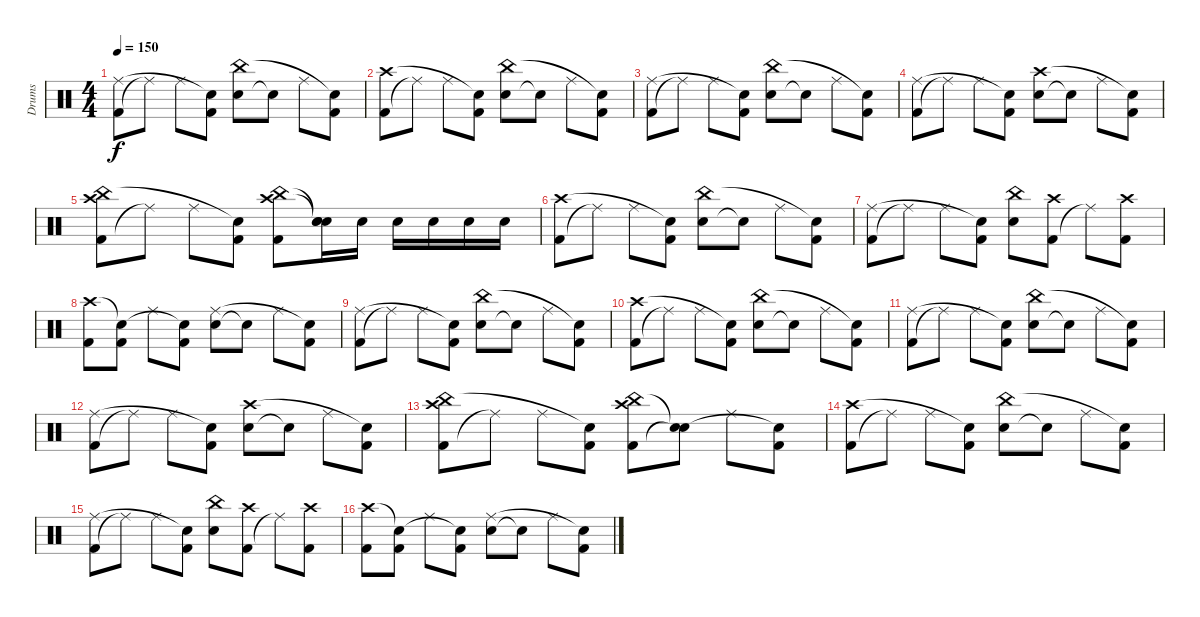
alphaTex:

\track ("Drums" "Drums") {instrument percussion}
\staff {score}
\articulation defaults
\ts (4 4)
\tempo 150
\clef neutral
\ks c
("Kick (hit) 2" "Ride (middle)").8{dy f} "Ride (middle)"{t}.8 "Ride (middle)".8 ("Kick (hit) 2" "Snare (hit)"{t}).8 ("Electric Snare (hit)" "China (hit)").8 "Snare (hit)"{t}.8 "Ride (middle)".8 ("Kick (hit) 2" "Snare (hit)"{t}).8 |
("Kick (hit) 2" "Crash high (hit)").8 "Ride (middle)"{t}.8 "Ride (middle)".8 ("Kick (hit) 2" "Snare (hit)"{t}).8 ("Electric Snare (hit)" "China (hit)").8 "Snare (hit)"{t}.8 "Ride (middle)".8 ("Kick (hit) 2" "Snare (hit)"{t}).8 |
("Kick (hit) 2" "Ride (middle)").8 "Ride (middle)"{t}.8 "Ride (middle)".8 ("Kick (hit) 2" "Snare (hit)"{t}).8 ("Electric Snare (hit)" "China (hit)").8 "Snare (hit)"{t}.8 "Ride (middle)".8 ("Kick (hit) 2" "Snare (hit)"{t}).8 |
("Kick (hit) 2" "Ride (middle)").8 "Ride (middle)"{t}.8 "Ride (middle)".8 ("Kick (hit) 2" "Snare (hit)"{t}).8 ("Electric Snare (hit)" "Crash high (hit)").8 "Snare (hit)"{t}.8 "Ride (middle)".8 ("Kick (hit) 2" "Snare (hit)"{t}).8 |
("Kick (hit) 2" "China (hit)" "Crash high (hit)").8 "Ride (middle)"{t}.8 "Ride (middle)".8 ("Kick (hit) 2" "Snare (hit)"{t}).8 ("Kick (hit) 2" "China (hit)" "Crash high (hit)").8 ("Electric Snare (hit)" "Snare (hit)"{t} "Snare (hit)"{t}).16 "Electric Snare (hit)".16 "Electric Snare (hit)".16 "Electric Snare (hit)".16 "Electric Snare (hit)".16 "Electric Snare (hit)".16 |
("Kick (hit) 2" "Crash high (hit)").8 "Ride (middle)"{t}.8 "Ride (middle)".8 ("Kick (hit) 2" "Snare (hit)"{t}).8 ("Electric Snare (hit)" "China (hit)").8 "Snare (hit)"{t}.8 "Ride (middle)".8 ("Kick (hit) 2" "Snare (hit)"{t}).8 |
("Kick (hit) 2" "Ride (middle)").8 "Ride (middle)"{t}.8 "Ride (middle)".8 ("Kick (hit) 2" "Snare (hit)"{t}).8 ("Electric Snare (hit)" "China (hit)").8 ("Kick (hit) 2" "Crash high (hit)").8 "Ride (middle)"{t}.8 ("Kick (hit) 2" "Crash high (hit)").8 |
("Kick (hit) 2" "Crash high (hit)").8 ("Kick (hit) 2" "Snare (hit)"{t}).8 "Ride (middle)".8 ("Kick (hit) 2" "Snare (hit)"{t}).8 ("Electric Snare (hit)" "Ride (middle)").8 "Snare (hit)"{t}.8 "Ride (middle)".8 ("Kick (hit) 2" "Snare (hit)"{t}).8 |
("Kick (hit) 2" "Ride (middle)").8 "Ride (middle)"{t}.8 "Ride (middle)".8 ("Kick (hit) 2" "Snare (hit)"{t}).8 ("Electric Snare (hit)" "China (hit)").8 "Snare (hit)"{t}.8 "Ride (middle)".8 ("Kick (hit) 2" "Snare (hit)"{t}).8 |
("Kick (hit) 2" "Crash high (hit)").8 "Ride (middle)"{t}.8 "Ride (middle)".8 ("Kick (hit) 2" "Snare (hit)"{t}).8 ("Electric Snare (hit)" "China (hit)").8 "Snare (hit)"{t}.8 "Ride (middle)".8 ("Kick (hit) 2" "Snare (hit)"{t}).8 |
("Kick (hit) 2" "Ride (middle)").8 "Ride (middle)"{t}.8 "Ride (middle)".8 ("Kick (hit) 2" "Snare (hit)"{t}).8 ("Electric Snare (hit)" "China (hit)").8 "Snare (hit)"{t}.8 "Ride (middle)".8 ("Kick (hit) 2" "Snare (hit)"{t}).8 |
("Kick (hit) 2" "Ride (middle)").8 "Ride (middle)"{t}.8 "Ride (middle)".8 ("Kick (hit) 2" "Snare (hit)"{t}).8 ("Electric Snare (hit)" "Crash high (hit)").8 "Snare (hit)"{t}.8 "Ride (middle)".8 ("Kick (hit) 2" "Snare (hit)"{t}).8 |
("Kick (hit) 2" "China (hit)" "Crash high (hit)").8 "Ride (middle)"{t}.8 "Ride (middle)".8 ("Kick (hit) 2" "Snare (hit)"{t}).8 ("Kick (hit) 2" "China (hit)" "Crash high (hit)").8 ("Snare (hit)"{t} "Snare (hit)"{t}).8 "Ride (middle)".8 ("Kick (hit) 2" "Snare (hit)"{t}).8 |
("Kick (hit) 2" "Crash high (hit)").8 "Ride (middle)"{t}.8 "Ride (middle)".8 ("Kick (hit) 2" "Snare (hit)"{t}).8 ("Electric Snare (hit)" "China (hit)").8 "Snare (hit)"{t}.8 "Ride (middle)".8 ("Kick (hit) 2" "Snare (hit)"{t}).8 |
("Kick (hit) 2" "Ride (middle)").8 "Ride (middle)"{t}.8 "Ride (middle)".8 ("Kick (hit) 2" "Snare (hit)"{t}).8 ("Electric Snare (hit)" "China (hit)").8 ("Kick (hit) 2" "Crash high (hit)").8 "Ride (middle)"{t}.8 ("Kick (hit) 2" "Crash high (hit)").8 |
("Kick (hit) 2" "Crash high (hit)").8 ("Kick (hit) 2" "Snare (hit)"{t}).8 "Ride (middle)".8 ("Kick (hit) 2" "Snare (hit)"{t}).8 ("Electric Snare (hit)" "Ride (middle)").8 "Snare (hit)"{t}.8 "Ride (middle)".8 ("Kick (hit) 2" "Snare (hit)"{t}).8
